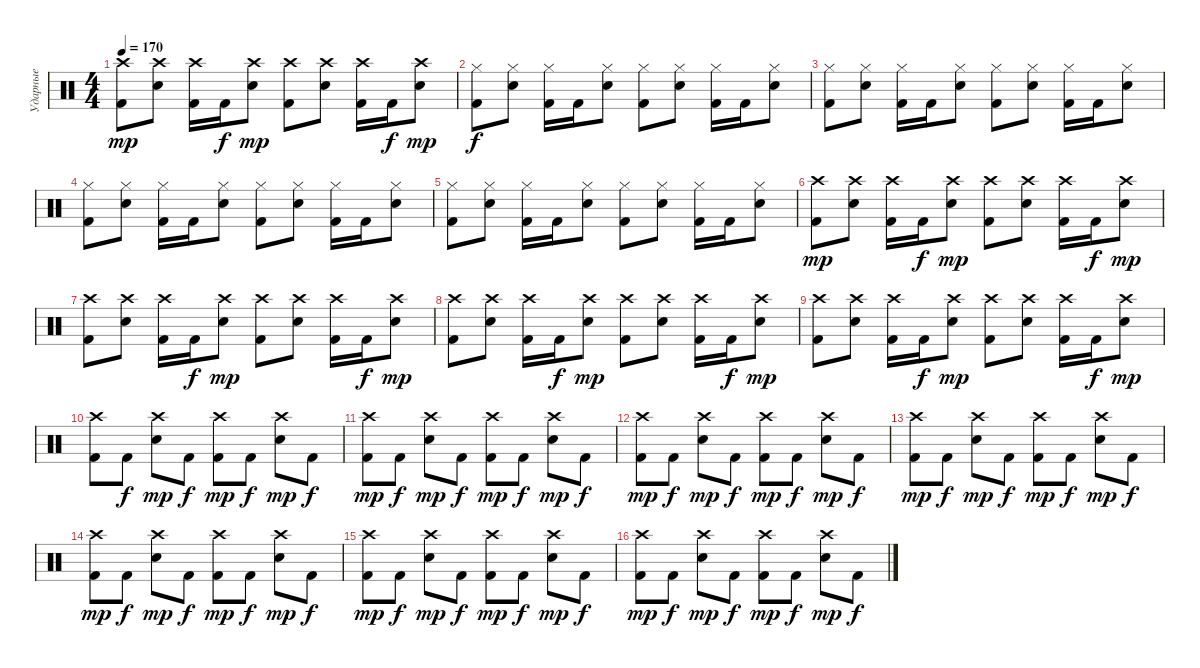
\track ("Ударные" "Ударные") {instrument percussion}
\staff {score}
\articulation defaults
\ts (4 4)
\tempo 170
\clef neutral
\ks c
("Crash high (hit)" "Kick (hit) 2").8{dy mp} ("Crash high (hit)" "Electric Snare (hit)").8 ("Crash high (hit)" "Kick (hit) 2").16 "Kick (hit) 2".16{dy f} ("Crash high (hit)" "Electric Snare (hit)").8{dy mp} ("Crash high (hit)" "Kick (hit) 2").8 ("Crash high (hit)" "Electric Snare (hit)").8 ("Crash high (hit)" "Kick (hit) 2").16 "Kick (hit) 2".16{dy f} ("Crash high (hit)" "Electric Snare (hit)").8{dy mp} |
("Hi-Hat (closed)" "Kick (hit) 2").8{dy f} ("Hi-Hat (closed)" "Electric Snare (hit)").8 ("Hi-Hat (closed)" "Kick (hit) 2").16 "Kick (hit) 2".16 ("Hi-Hat (closed)" "Electric Snare (hit)").8 ("Hi-Hat (closed)" "Kick (hit) 2").8 ("Hi-Hat (closed)" "Electric Snare (hit)").8 ("Hi-Hat (closed)" "Kick (hit) 2").16 "Kick (hit) 2".16 ("Hi-Hat (closed)" "Electric Snare (hit)").8 |
("Hi-Hat (closed)" "Kick (hit) 2").8 ("Hi-Hat (closed)" "Electric Snare (hit)").8 ("Hi-Hat (closed)" "Kick (hit) 2").16 "Kick (hit) 2".16 ("Hi-Hat (closed)" "Electric Snare (hit)").8 ("Hi-Hat (closed)" "Kick (hit) 2").8 ("Hi-Hat (closed)" "Electric Snare (hit)").8 ("Hi-Hat (closed)" "Kick (hit) 2").16 "Kick (hit) 2".16 ("Hi-Hat (closed)" "Electric Snare (hit)").8 |
("Hi-Hat (closed)" "Kick (hit) 2").8 ("Hi-Hat (closed)" "Electric Snare (hit)").8 ("Hi-Hat (closed)" "Kick (hit) 2").16 "Kick (hit) 2".16 ("Hi-Hat (closed)" "Electric Snare (hit)").8 ("Hi-Hat (closed)" "Kick (hit) 2").8 ("Hi-Hat (closed)" "Electric Snare (hit)").8 ("Hi-Hat (closed)" "Kick (hit) 2").16 "Kick (hit) 2".16 ("Hi-Hat (closed)" "Electric Snare (hit)").8 |
("Hi-Hat (closed)" "Kick (hit) 2").8 ("Hi-Hat (closed)" "Electric Snare (hit)").8 ("Hi-Hat (closed)" "Kick (hit) 2").16 "Kick (hit) 2".16 ("Hi-Hat (closed)" "Electric Snare (hit)").8 ("Hi-Hat (closed)" "Kick (hit) 2").8 ("Hi-Hat (closed)" "Electric Snare (hit)").8 ("Hi-Hat (closed)" "Kick (hit) 2").16 "Kick (hit) 2".16 ("Hi-Hat (closed)" "Electric Snare (hit)").8 |
("Crash high (hit)" "Kick (hit) 2").8{dy mp} ("Crash high (hit)" "Electric Snare (hit)").8 ("Crash high (hit)" "Kick (hit) 2").16 "Kick (hit) 2".16{dy f} ("Crash high (hit)" "Electric Snare (hit)").8{dy mp} ("Crash high (hit)" "Kick (hit) 2").8 ("Crash high (hit)" "Electric Snare (hit)").8 ("Crash high (hit)" "Kick (hit) 2").16 "Kick (hit) 2".16{dy f} ("Crash high (hit)" "Electric Snare (hit)").8{dy mp} |
("Crash high (hit)" "Kick (hit) 2").8 ("Crash high (hit)" "Electric Snare (hit)").8 ("Crash high (hit)" "Kick (hit) 2").16 "Kick (hit) 2".16{dy f} ("Crash high (hit)" "Electric Snare (hit)").8{dy mp} ("Crash high (hit)" "Kick (hit) 2").8 ("Crash high (hit)" "Electric Snare (hit)").8 ("Crash high (hit)" "Kick (hit) 2").16 "Kick (hit) 2".16{dy f} ("Crash high (hit)" "Electric Snare (hit)").8{dy mp} |
("Crash high (hit)" "Kick (hit) 2").8 ("Crash high (hit)" "Electric Snare (hit)").8 ("Crash high (hit)" "Kick (hit) 2").16 "Kick (hit) 2".16{dy f} ("Crash high (hit)" "Electric Snare (hit)").8{dy mp} ("Crash high (hit)" "Kick (hit) 2").8 ("Crash high (hit)" "Electric Snare (hit)").8 ("Crash high (hit)" "Kick (hit) 2").16 "Kick (hit) 2".16{dy f} ("Crash high (hit)" "Electric Snare (hit)").8{dy mp} |
("Crash high (hit)" "Kick (hit) 2").8 ("Crash high (hit)" "Electric Snare (hit)").8 ("Crash high (hit)" "Kick (hit) 2").16 "Kick (hit) 2".16{dy f} ("Crash high (hit)" "Electric Snare (hit)").8{dy mp} ("Crash high (hit)" "Kick (hit) 2").8 ("Crash high (hit)" "Electric Snare (hit)").8 ("Crash high (hit)" "Kick (hit) 2").16 "Kick (hit) 2".16{dy f} ("Crash high (hit)" "Electric Snare (hit)").8{dy mp} |
("Crash high (hit)" "Kick (hit) 2").8 "Kick (hit) 2".8{dy f} ("Crash high (hit)" "Electric Snare (hit)").8{dy mp} "Kick (hit) 2".8{dy f} ("Crash high (hit)" "Kick (hit) 2").8{dy mp} "Kick (hit) 2".8{dy f} ("Crash high (hit)" "Electric Snare (hit)").8{dy mp} "Kick (hit) 2".8{dy f} |
("Crash high (hit)" "Kick (hit) 2").8{dy mp} "Kick (hit) 2".8{dy f} ("Crash high (hit)" "Electric Snare (hit)").8{dy mp} "Kick (hit) 2".8{dy f} ("Crash high (hit)" "Kick (hit) 2").8{dy mp} "Kick (hit) 2".8{dy f} ("Crash high (hit)" "Electric Snare (hit)").8{dy mp} "Kick (hit) 2".8{dy f} |
("Crash high (hit)" "Kick (hit) 2").8{dy mp} "Kick (hit) 2".8{dy f} ("Crash high (hit)" "Electric Snare (hit)").8{dy mp} "Kick (hit) 2".8{dy f} ("Crash high (hit)" "Kick (hit) 2").8{dy mp} "Kick (hit) 2".8{dy f} ("Crash high (hit)" "Electric Snare (hit)").8{dy mp} "Kick (hit) 2".8{dy f} |
("Crash high (hit)" "Kick (hit) 2").8{dy mp} "Kick (hit) 2".8{dy f} ("Crash high (hit)" "Electric Snare (hit)").8{dy mp} "Kick (hit) 2".8{dy f} ("Crash high (hit)" "Kick (hit) 2").8{dy mp} "Kick (hit) 2".8{dy f} ("Crash high (hit)" "Electric Snare (hit)").8{dy mp} "Kick (hit) 2".8{dy f} |
("Crash high (hit)" "Kick (hit) 2").8{dy mp} "Kick (hit) 2".8{dy f} ("Crash high (hit)" "Electric Snare (hit)").8{dy mp} "Kick (hit) 2".8{dy f} ("Crash high (hit)" "Kick (hit) 2").8{dy mp} "Kick (hit) 2".8{dy f} ("Crash high (hit)" "Electric Snare (hit)").8{dy mp} "Kick (hit) 2".8{dy f} |
("Crash high (hit)" "Kick (hit) 2").8{dy mp} "Kick (hit) 2".8{dy f} ("Crash high (hit)" "Electric Snare (hit)").8{dy mp} "Kick (hit) 2".8{dy f} ("Crash high (hit)" "Kick (hit) 2").8{dy mp} "Kick (hit) 2".8{dy f} ("Crash high (hit)" "Electric Snare (hit)").8{dy mp} "Kick (hit) 2".8{dy f} |
("Crash high (hit)" "Kick (hit) 2").8{dy mp} "Kick (hit) 2".8{dy f} ("Crash high (hit)" "Electric Snare (hit)").8{dy mp} "Kick (hit) 2".8{dy f} ("Crash high (hit)" "Kick (hit) 2").8{dy mp} "Kick (hit) 2".8{dy f} ("Crash high (hit)" "Electric Snare (hit)").8{dy mp} "Kick (hit) 2".8{dy f}
